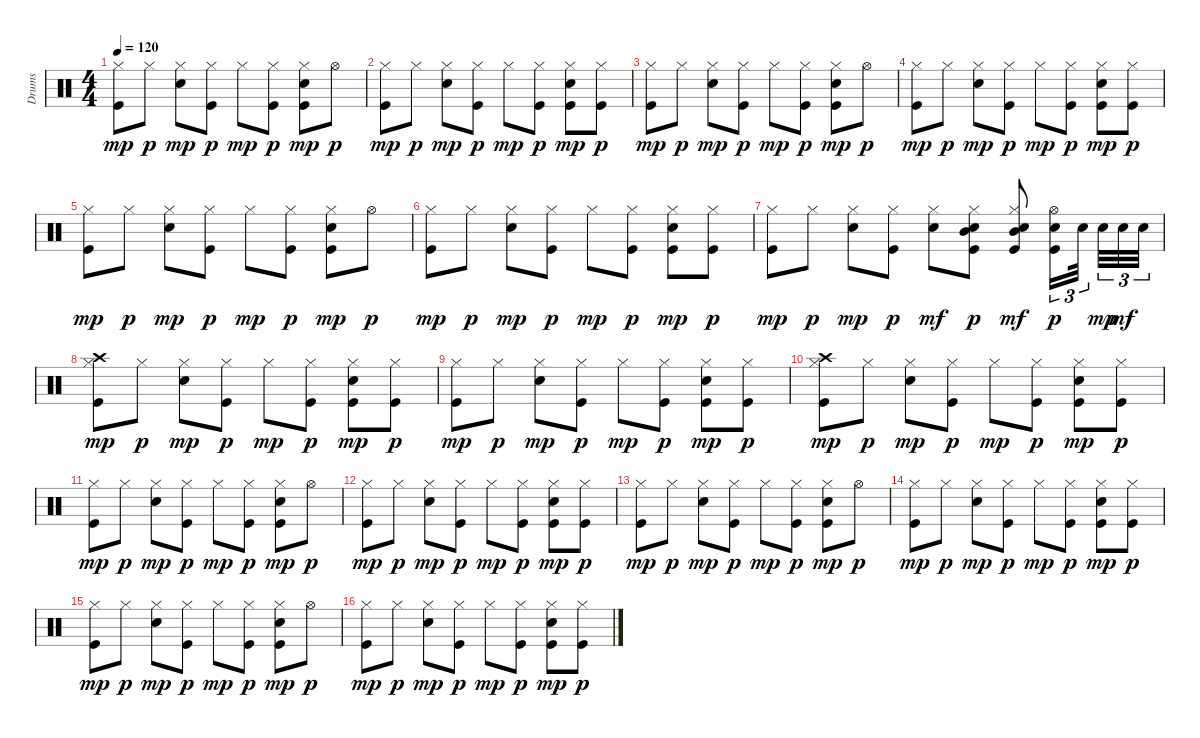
\track ("Drums" "Drums") {instrument percussion}
\staff {score}
\articulation defaults
\ts (4 4)
\tempo 120
\clef neutral
\ks c
("Kick (hit)" "Hi-Hat (closed)").8{dy mp} "Hi-Hat (closed)".8{dy p} ("Electric Snare (hit)" "Hi-Hat (closed)").8{dy mp} ("Kick (hit)" "Hi-Hat (closed)").8{dy p} "Hi-Hat (closed)".8{dy mp} ("Kick (hit)" "Hi-Hat (closed)").8{dy p} ("Kick (hit)" "Electric Snare (hit)" "Hi-Hat (closed)").8{dy mp} "Hi-Hat (open)".8{dy p} |
("Kick (hit)" "Hi-Hat (closed)").8{dy mp} "Hi-Hat (closed)".8{dy p} ("Electric Snare (hit)" "Hi-Hat (closed)").8{dy mp} ("Kick (hit)" "Hi-Hat (closed)").8{dy p} "Hi-Hat (closed)".8{dy mp} ("Kick (hit)" "Hi-Hat (closed)").8{dy p} ("Kick (hit)" "Electric Snare (hit)" "Hi-Hat (closed)").8{dy mp} ("Kick (hit)" "Hi-Hat (closed)").8{dy p} |
("Kick (hit)" "Hi-Hat (closed)").8{dy mp} "Hi-Hat (closed)".8{dy p} ("Electric Snare (hit)" "Hi-Hat (closed)").8{dy mp} ("Kick (hit)" "Hi-Hat (closed)").8{dy p} "Hi-Hat (closed)".8{dy mp} ("Kick (hit)" "Hi-Hat (closed)").8{dy p} ("Kick (hit)" "Electric Snare (hit)" "Hi-Hat (closed)").8{dy mp} "Hi-Hat (open)".8{dy p} |
("Kick (hit)" "Hi-Hat (closed)").8{dy mp} "Hi-Hat (closed)".8{dy p} ("Electric Snare (hit)" "Hi-Hat (closed)").8{dy mp} ("Kick (hit)" "Hi-Hat (closed)").8{dy p} "Hi-Hat (closed)".8{dy mp} ("Kick (hit)" "Hi-Hat (closed)").8{dy p} ("Kick (hit)" "Electric Snare (hit)" "Hi-Hat (closed)").8{dy mp} ("Kick (hit)" "Hi-Hat (closed)").8{dy p} |
("Kick (hit)" "Hi-Hat (closed)").8{dy mp} "Hi-Hat (closed)".8{dy p} ("Electric Snare (hit)" "Hi-Hat (closed)").8{dy mp} ("Kick (hit)" "Hi-Hat (closed)").8{dy p} "Hi-Hat (closed)".8{dy mp} ("Kick (hit)" "Hi-Hat (closed)").8{dy p} ("Kick (hit)" "Electric Snare (hit)" "Hi-Hat (closed)").8{dy mp} "Hi-Hat (open)".8{dy p} |
("Kick (hit)" "Hi-Hat (closed)").8{dy mp} "Hi-Hat (closed)".8{dy p} ("Electric Snare (hit)" "Hi-Hat (closed)").8{dy mp} ("Kick (hit)" "Hi-Hat (closed)").8{dy p} "Hi-Hat (closed)".8{dy mp} ("Kick (hit)" "Hi-Hat (closed)").8{dy p} ("Kick (hit)" "Electric Snare (hit)" "Hi-Hat (closed)").8{dy mp} ("Kick (hit)" "Hi-Hat (closed)").8{dy p} |
("Kick (hit)" "Hi-Hat (closed)").8{dy mp} "Hi-Hat (closed)".8{dy p} ("Electric Snare (hit)" "Hi-Hat (closed)").8{dy mp} ("Kick (hit)" "Hi-Hat (closed)").8{dy p} ("Hi-Hat (closed)" "Electric Snare (hit)").8{dy mf} ("Kick (hit)" "Electric Snare (hit)" "Hi-Hat (closed)" "Mid Tom (hit)").8{dy p} ("Kick (hit)" "Electric Snare (hit)" "Hi-Hat (closed)" "Mid Tom (hit)").8{dy mf} ("Kick (hit)" "Electric Snare (hit)" "Hi-Hat (open)").16{tu (3 2) dy p} "Electric Snare (hit)".32{tu (3 2) beam splitsecondary} "Electric Snare (hit)".32{tu (3 2) dy mp} "Electric Snare (hit)".32{tu (3 2) dy mf} "Electric Snare (hit)".32{tu (3 2)} |
("Kick (hit)" "Hi-Hat (closed)" "Crash high (hit)").8{dy mp} "Hi-Hat (closed)".8{dy p} ("Electric Snare (hit)" "Hi-Hat (closed)").8{dy mp} ("Kick (hit)" "Hi-Hat (closed)").8{dy p} "Hi-Hat (closed)".8{dy mp} ("Kick (hit)" "Hi-Hat (closed)").8{dy p} ("Kick (hit)" "Electric Snare (hit)" "Hi-Hat (closed)").8{dy mp} ("Kick (hit)" "Hi-Hat (closed)").8{dy p} |
("Kick (hit)" "Hi-Hat (closed)").8{dy mp} "Hi-Hat (closed)".8{dy p} ("Electric Snare (hit)" "Hi-Hat (closed)").8{dy mp} ("Kick (hit)" "Hi-Hat (closed)").8{dy p} "Hi-Hat (closed)".8{dy mp} ("Kick (hit)" "Hi-Hat (closed)").8{dy p} ("Kick (hit)" "Electric Snare (hit)" "Hi-Hat (closed)").8{dy mp} ("Kick (hit)" "Hi-Hat (closed)").8{dy p} |
("Kick (hit)" "Hi-Hat (closed)" "Crash high (hit)").8{dy mp} "Hi-Hat (closed)".8{dy p} ("Electric Snare (hit)" "Hi-Hat (closed)").8{dy mp} ("Kick (hit)" "Hi-Hat (closed)").8{dy p} "Hi-Hat (closed)".8{dy mp} ("Kick (hit)" "Hi-Hat (closed)").8{dy p} ("Kick (hit)" "Electric Snare (hit)" "Hi-Hat (closed)").8{dy mp} ("Kick (hit)" "Hi-Hat (closed)").8{dy p} |
("Kick (hit)" "Hi-Hat (closed)").8{dy mp} "Hi-Hat (closed)".8{dy p} ("Electric Snare (hit)" "Hi-Hat (closed)").8{dy mp} ("Kick (hit)" "Hi-Hat (closed)").8{dy p} "Hi-Hat (closed)".8{dy mp} ("Kick (hit)" "Hi-Hat (closed)").8{dy p} ("Kick (hit)" "Electric Snare (hit)" "Hi-Hat (closed)").8{dy mp} "Hi-Hat (open)".8{dy p} |
("Kick (hit)" "Hi-Hat (closed)").8{dy mp} "Hi-Hat (closed)".8{dy p} ("Electric Snare (hit)" "Hi-Hat (closed)").8{dy mp} ("Kick (hit)" "Hi-Hat (closed)").8{dy p} "Hi-Hat (closed)".8{dy mp} ("Kick (hit)" "Hi-Hat (closed)").8{dy p} ("Kick (hit)" "Electric Snare (hit)" "Hi-Hat (closed)").8{dy mp} ("Kick (hit)" "Hi-Hat (closed)").8{dy p} |
("Kick (hit)" "Hi-Hat (closed)").8{dy mp} "Hi-Hat (closed)".8{dy p} ("Electric Snare (hit)" "Hi-Hat (closed)").8{dy mp} ("Kick (hit)" "Hi-Hat (closed)").8{dy p} "Hi-Hat (closed)".8{dy mp} ("Kick (hit)" "Hi-Hat (closed)").8{dy p} ("Kick (hit)" "Electric Snare (hit)" "Hi-Hat (closed)").8{dy mp} "Hi-Hat (open)".8{dy p} |
("Kick (hit)" "Hi-Hat (closed)").8{dy mp} "Hi-Hat (closed)".8{dy p} ("Electric Snare (hit)" "Hi-Hat (closed)").8{dy mp} ("Kick (hit)" "Hi-Hat (closed)").8{dy p} "Hi-Hat (closed)".8{dy mp} ("Kick (hit)" "Hi-Hat (closed)").8{dy p} ("Kick (hit)" "Electric Snare (hit)" "Hi-Hat (closed)").8{dy mp} ("Kick (hit)" "Hi-Hat (closed)").8{dy p} |
("Kick (hit)" "Hi-Hat (closed)").8{dy mp} "Hi-Hat (closed)".8{dy p} ("Electric Snare (hit)" "Hi-Hat (closed)").8{dy mp} ("Kick (hit)" "Hi-Hat (closed)").8{dy p} "Hi-Hat (closed)".8{dy mp} ("Kick (hit)" "Hi-Hat (closed)").8{dy p} ("Kick (hit)" "Electric Snare (hit)" "Hi-Hat (closed)").8{dy mp} "Hi-Hat (open)".8{dy p} |
("Kick (hit)" "Hi-Hat (closed)").8{dy mp} "Hi-Hat (closed)".8{dy p} ("Electric Snare (hit)" "Hi-Hat (closed)").8{dy mp} ("Kick (hit)" "Hi-Hat (closed)").8{dy p} "Hi-Hat (closed)".8{dy mp} ("Kick (hit)" "Hi-Hat (closed)").8{dy p} ("Kick (hit)" "Electric Snare (hit)" "Hi-Hat (closed)").8{dy mp} ("Kick (hit)" "Hi-Hat (closed)").8{dy p}
